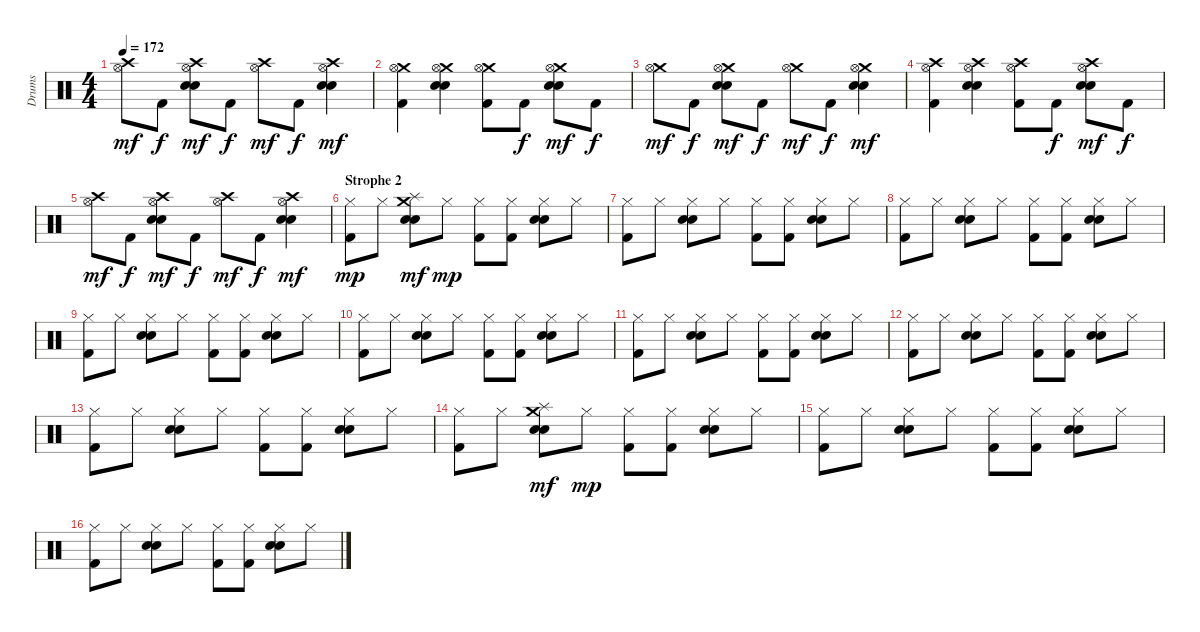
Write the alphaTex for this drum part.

\track ("Drums" "Drums") {instrument percussion}
\staff {score}
\articulation defaults
\ts (4 4)
\tempo 172
\clef neutral
\ks c
("Crash high (hit)" "Hi-Hat (open)").8{dy mf} "Kick (hit) 2".8{dy f} ("Crash high (hit)" "Hi-Hat (open)" "Electric Snare (hit)" "Snare (hit) 2").8{dy mf} "Kick (hit) 2".8{dy f} ("Crash high (hit)" "Hi-Hat (open)").8{dy mf} "Kick (hit) 2".8{dy f} ("Crash high (hit)" "Hi-Hat (open)" "Electric Snare (hit)" "Snare (hit) 2").4{dy mf} |
("Crash medium (hit)" "Hi-Hat (open)" "Kick (hit) 2").4 ("Crash medium (hit)" "Hi-Hat (open)" "Electric Snare (hit)" "Snare (hit) 2").4 ("Crash medium (hit)" "Hi-Hat (open)" "Kick (hit) 2").8 "Kick (hit) 2".8{dy f} ("Crash medium (hit)" "Hi-Hat (open)" "Electric Snare (hit)" "Snare (hit) 2").8{dy mf} "Kick (hit) 2".8{dy f} |
("Crash medium (hit)" "Hi-Hat (open)").8{dy mf} "Kick (hit) 2".8{dy f} ("Crash medium (hit)" "Hi-Hat (open)" "Electric Snare (hit)" "Snare (hit) 2").8{dy mf} "Kick (hit) 2".8{dy f} ("Crash medium (hit)" "Hi-Hat (open)").8{dy mf} "Kick (hit) 2".8{dy f} ("Crash medium (hit)" "Hi-Hat (open)" "Electric Snare (hit)" "Snare (hit) 2").4{dy mf} |
("Crash high (hit)" "Hi-Hat (open)" "Kick (hit) 2").4 ("Crash high (hit)" "Hi-Hat (open)" "Electric Snare (hit)" "Snare (hit) 2").4 ("Crash high (hit)" "Hi-Hat (open)" "Kick (hit) 2").8 "Kick (hit) 2".8{dy f} ("Crash high (hit)" "Hi-Hat (open)" "Electric Snare (hit)" "Snare (hit) 2").8{dy mf} "Kick (hit) 2".8{dy f} |
("Crash high (hit)" "Hi-Hat (open)").8{dy mf} "Kick (hit) 2".8{dy f} ("Crash high (hit)" "Hi-Hat (open)" "Electric Snare (hit)" "Snare (hit) 2").8{dy mf} "Kick (hit) 2".8{dy f} ("Crash high (hit)" "Hi-Hat (open)").8{dy mf} "Kick (hit) 2".8{dy f} ("Crash high (hit)" "Hi-Hat (open)" "Electric Snare (hit)" "Snare (hit) 2").4{dy mf} |
\section ("" "Strophe 2")
("Hi-Hat (closed)" "Kick (hit) 2").8{dy mp} "Hi-Hat (closed)".8 ("Splash (hit)" "Crash medium (hit)" "Snare (hit) 2" "Electric Snare (hit)").8{dy mf} "Hi-Hat (closed)".8{dy mp} ("Hi-Hat (closed)" "Kick (hit) 2").8 ("Hi-Hat (closed)" "Kick (hit) 2").8 ("Hi-Hat (closed)" "Snare (hit) 2" "Electric Snare (hit)").8 "Hi-Hat (closed)".8 |
("Hi-Hat (closed)" "Kick (hit) 2").8 "Hi-Hat (closed)".8 ("Hi-Hat (closed)" "Snare (hit) 2" "Electric Snare (hit)").8 "Hi-Hat (closed)".8 ("Hi-Hat (closed)" "Kick (hit) 2").8 ("Hi-Hat (closed)" "Kick (hit) 2").8 ("Hi-Hat (closed)" "Snare (hit) 2" "Electric Snare (hit)").8 "Hi-Hat (closed)".8 |
("Hi-Hat (closed)" "Kick (hit) 2").8 "Hi-Hat (closed)".8 ("Hi-Hat (closed)" "Snare (hit) 2" "Electric Snare (hit)").8 "Hi-Hat (closed)".8 ("Hi-Hat (closed)" "Kick (hit) 2").8 ("Hi-Hat (closed)" "Kick (hit) 2").8 ("Hi-Hat (closed)" "Snare (hit) 2" "Electric Snare (hit)").8 "Hi-Hat (closed)".8 |
("Hi-Hat (closed)" "Kick (hit) 2").8 "Hi-Hat (closed)".8 ("Hi-Hat (closed)" "Snare (hit) 2" "Electric Snare (hit)").8 "Hi-Hat (closed)".8 ("Hi-Hat (closed)" "Kick (hit) 2").8 ("Hi-Hat (closed)" "Kick (hit) 2").8 ("Hi-Hat (closed)" "Snare (hit) 2" "Electric Snare (hit)").8 "Hi-Hat (closed)".8 |
("Hi-Hat (closed)" "Kick (hit) 2").8 "Hi-Hat (closed)".8 ("Hi-Hat (closed)" "Snare (hit) 2" "Electric Snare (hit)").8 "Hi-Hat (closed)".8 ("Hi-Hat (closed)" "Kick (hit) 2").8 ("Hi-Hat (closed)" "Kick (hit) 2").8 ("Hi-Hat (closed)" "Snare (hit) 2" "Electric Snare (hit)").8 "Hi-Hat (closed)".8 |
("Hi-Hat (closed)" "Kick (hit) 2").8 "Hi-Hat (closed)".8 ("Hi-Hat (closed)" "Snare (hit) 2" "Electric Snare (hit)").8 "Hi-Hat (closed)".8 ("Hi-Hat (closed)" "Kick (hit) 2").8 ("Hi-Hat (closed)" "Kick (hit) 2").8 ("Hi-Hat (closed)" "Snare (hit) 2" "Electric Snare (hit)").8 "Hi-Hat (closed)".8 |
("Hi-Hat (closed)" "Kick (hit) 2").8 "Hi-Hat (closed)".8 ("Hi-Hat (closed)" "Snare (hit) 2" "Electric Snare (hit)").8 "Hi-Hat (closed)".8 ("Hi-Hat (closed)" "Kick (hit) 2").8 ("Hi-Hat (closed)" "Kick (hit) 2").8 ("Hi-Hat (closed)" "Snare (hit) 2" "Electric Snare (hit)").8 "Hi-Hat (closed)".8 |
("Hi-Hat (closed)" "Kick (hit) 2").8 "Hi-Hat (closed)".8 ("Hi-Hat (closed)" "Snare (hit) 2" "Electric Snare (hit)").8 "Hi-Hat (closed)".8 ("Hi-Hat (closed)" "Kick (hit) 2").8 ("Hi-Hat (closed)" "Kick (hit) 2").8 ("Hi-Hat (closed)" "Snare (hit) 2" "Electric Snare (hit)").8 "Hi-Hat (closed)".8 |
("Hi-Hat (closed)" "Kick (hit) 2").8 "Hi-Hat (closed)".8 ("Splash (hit)" "Crash medium (hit)" "Snare (hit) 2" "Electric Snare (hit)").8{dy mf} "Hi-Hat (closed)".8{dy mp} ("Hi-Hat (closed)" "Kick (hit) 2").8 ("Hi-Hat (closed)" "Kick (hit) 2").8 ("Hi-Hat (closed)" "Snare (hit) 2" "Electric Snare (hit)").8 "Hi-Hat (closed)".8 |
("Hi-Hat (closed)" "Kick (hit) 2").8 "Hi-Hat (closed)".8 ("Hi-Hat (closed)" "Snare (hit) 2" "Electric Snare (hit)").8 "Hi-Hat (closed)".8 ("Hi-Hat (closed)" "Kick (hit) 2").8 ("Hi-Hat (closed)" "Kick (hit) 2").8 ("Hi-Hat (closed)" "Snare (hit) 2" "Electric Snare (hit)").8 "Hi-Hat (closed)".8 |
("Hi-Hat (closed)" "Kick (hit) 2").8 "Hi-Hat (closed)".8 ("Hi-Hat (closed)" "Snare (hit) 2" "Electric Snare (hit)").8 "Hi-Hat (closed)".8 ("Hi-Hat (closed)" "Kick (hit) 2").8 ("Hi-Hat (closed)" "Kick (hit) 2").8 ("Hi-Hat (closed)" "Snare (hit) 2" "Electric Snare (hit)").8 "Hi-Hat (closed)".8
